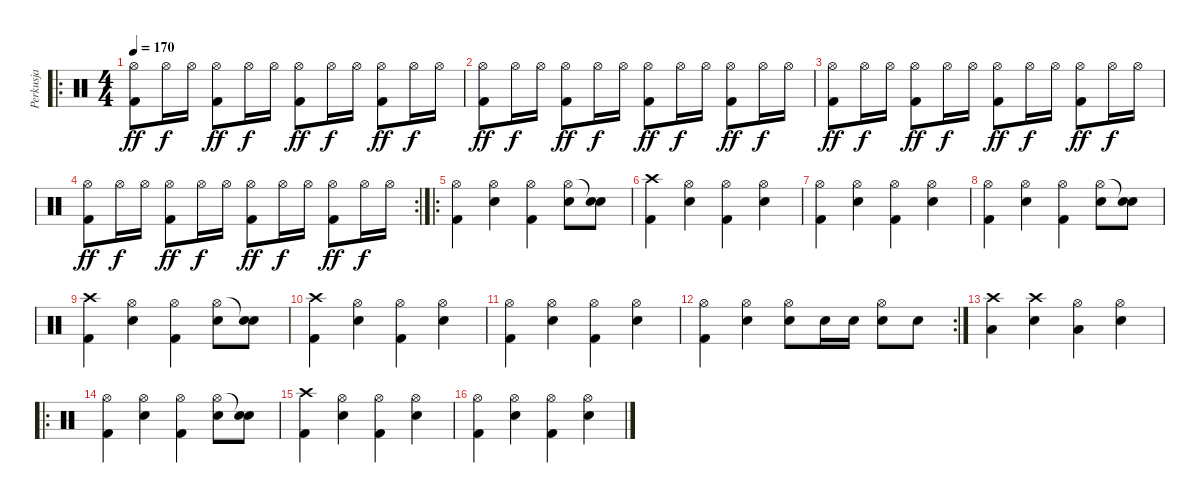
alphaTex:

\track ("Perkusja" "Perkusja") {instrument percussion}
\staff {score}
\articulation defaults
\ro
\ts (4 4)
\tempo 170
\clef neutral
\ks c
("Hi-Hat (open)" "Kick (hit) 2").8{dy ff} "Hi-Hat (open)".16{dy f} "Hi-Hat (open)".16 ("Hi-Hat (open)" "Kick (hit) 2").8{dy ff} "Hi-Hat (open)".16{dy f} "Hi-Hat (open)".16 ("Hi-Hat (open)" "Kick (hit) 2").8{dy ff} "Hi-Hat (open)".16{dy f} "Hi-Hat (open)".16 ("Hi-Hat (open)" "Kick (hit) 2").8{dy ff} "Hi-Hat (open)".16{dy f} "Hi-Hat (open)".16 |
("Hi-Hat (open)" "Kick (hit) 2").8{dy ff} "Hi-Hat (open)".16{dy f} "Hi-Hat (open)".16 ("Hi-Hat (open)" "Kick (hit) 2").8{dy ff} "Hi-Hat (open)".16{dy f} "Hi-Hat (open)".16 ("Hi-Hat (open)" "Kick (hit) 2").8{dy ff} "Hi-Hat (open)".16{dy f} "Hi-Hat (open)".16 ("Hi-Hat (open)" "Kick (hit) 2").8{dy ff} "Hi-Hat (open)".16{dy f} "Hi-Hat (open)".16 |
("Hi-Hat (open)" "Kick (hit) 2").8{dy ff} "Hi-Hat (open)".16{dy f} "Hi-Hat (open)".16 ("Hi-Hat (open)" "Kick (hit) 2").8{dy ff} "Hi-Hat (open)".16{dy f} "Hi-Hat (open)".16 ("Hi-Hat (open)" "Kick (hit) 2").8{dy ff} "Hi-Hat (open)".16{dy f} "Hi-Hat (open)".16 ("Hi-Hat (open)" "Kick (hit) 2").8{dy ff} "Hi-Hat (open)".16{dy f} "Hi-Hat (open)".16 |
\rc 2
("Hi-Hat (open)" "Kick (hit) 2").8{dy ff} "Hi-Hat (open)".16{dy f} "Hi-Hat (open)".16 ("Hi-Hat (open)" "Kick (hit) 2").8{dy ff} "Hi-Hat (open)".16{dy f} "Hi-Hat (open)".16 ("Hi-Hat (open)" "Kick (hit) 2").8{dy ff} "Hi-Hat (open)".16{dy f} "Hi-Hat (open)".16 ("Hi-Hat (open)" "Kick (hit) 2").8{dy ff} "Hi-Hat (open)".16{dy f} "Hi-Hat (open)".16 |
\ro
("Hi-Hat (open)" "Kick (hit) 2").4 ("Hi-Hat (open)" "Snare (hit) 2").4 ("Hi-Hat (open)" "Kick (hit) 2").4 ("Hi-Hat (open)" "Snare (hit) 2").8 ("Snare (hit)"{t} "Snare (hit) 2").8 |
("Crash high (hit)" "Kick (hit) 2").4 ("Hi-Hat (open)" "Snare (hit) 2").4 ("Hi-Hat (open)" "Kick (hit) 2").4 ("Hi-Hat (open)" "Snare (hit) 2").4 |
("Hi-Hat (open)" "Kick (hit) 2").4 ("Hi-Hat (open)" "Snare (hit) 2").4 ("Hi-Hat (open)" "Kick (hit) 2").4 ("Hi-Hat (open)" "Snare (hit) 2").4 |
("Hi-Hat (open)" "Kick (hit) 2").4 ("Hi-Hat (open)" "Snare (hit) 2").4 ("Hi-Hat (open)" "Kick (hit) 2").4 ("Hi-Hat (open)" "Snare (hit) 2").8 ("Snare (hit)"{t} "Snare (hit) 2").8 |
("Crash high (hit)" "Kick (hit) 2").4 ("Hi-Hat (open)" "Snare (hit) 2").4 ("Hi-Hat (open)" "Kick (hit) 2").4 ("Hi-Hat (open)" "Snare (hit) 2").8 ("Snare (hit)"{t} "Snare (hit) 2").8 |
("Crash high (hit)" "Kick (hit) 2").4 ("Hi-Hat (open)" "Snare (hit) 2").4 ("Hi-Hat (open)" "Kick (hit) 2").4 ("Hi-Hat (open)" "Snare (hit) 2").4 |
("Hi-Hat (open)" "Kick (hit) 2").4 ("Hi-Hat (open)" "Snare (hit) 2").4 ("Hi-Hat (open)" "Kick (hit) 2").4 ("Hi-Hat (open)" "Snare (hit) 2").4 |
\rc 2
("Hi-Hat (open)" "Kick (hit) 2").4 ("Hi-Hat (open)" "Snare (hit) 2").4 ("Hi-Hat (open)" "Snare (hit) 2").8 "Snare (hit) 2".16 "Snare (hit) 2".16 ("Hi-Hat (open)" "Snare (hit) 2").8 "Snare (hit) 2".8 |
("Crash high (hit)" "Low Tom (hit)").4 ("Crash high (hit)" "Snare (hit) 2").4 ("Hi-Hat (open)" "Low Tom (hit)").4 ("Hi-Hat (open)" "Snare (hit) 2").4 |
\ro
("Hi-Hat (open)" "Kick (hit) 2").4 ("Hi-Hat (open)" "Snare (hit) 2").4 ("Hi-Hat (open)" "Kick (hit) 2").4 ("Hi-Hat (open)" "Snare (hit) 2").8 ("Snare (hit)"{t} "Snare (hit) 2").8 |
("Crash high (hit)" "Kick (hit) 2").4 ("Hi-Hat (open)" "Snare (hit) 2").4 ("Hi-Hat (open)" "Kick (hit) 2").4 ("Hi-Hat (open)" "Snare (hit) 2").4 |
("Hi-Hat (open)" "Kick (hit) 2").4 ("Hi-Hat (open)" "Snare (hit) 2").4 ("Hi-Hat (open)" "Kick (hit) 2").4 ("Hi-Hat (open)" "Snare (hit) 2").4
